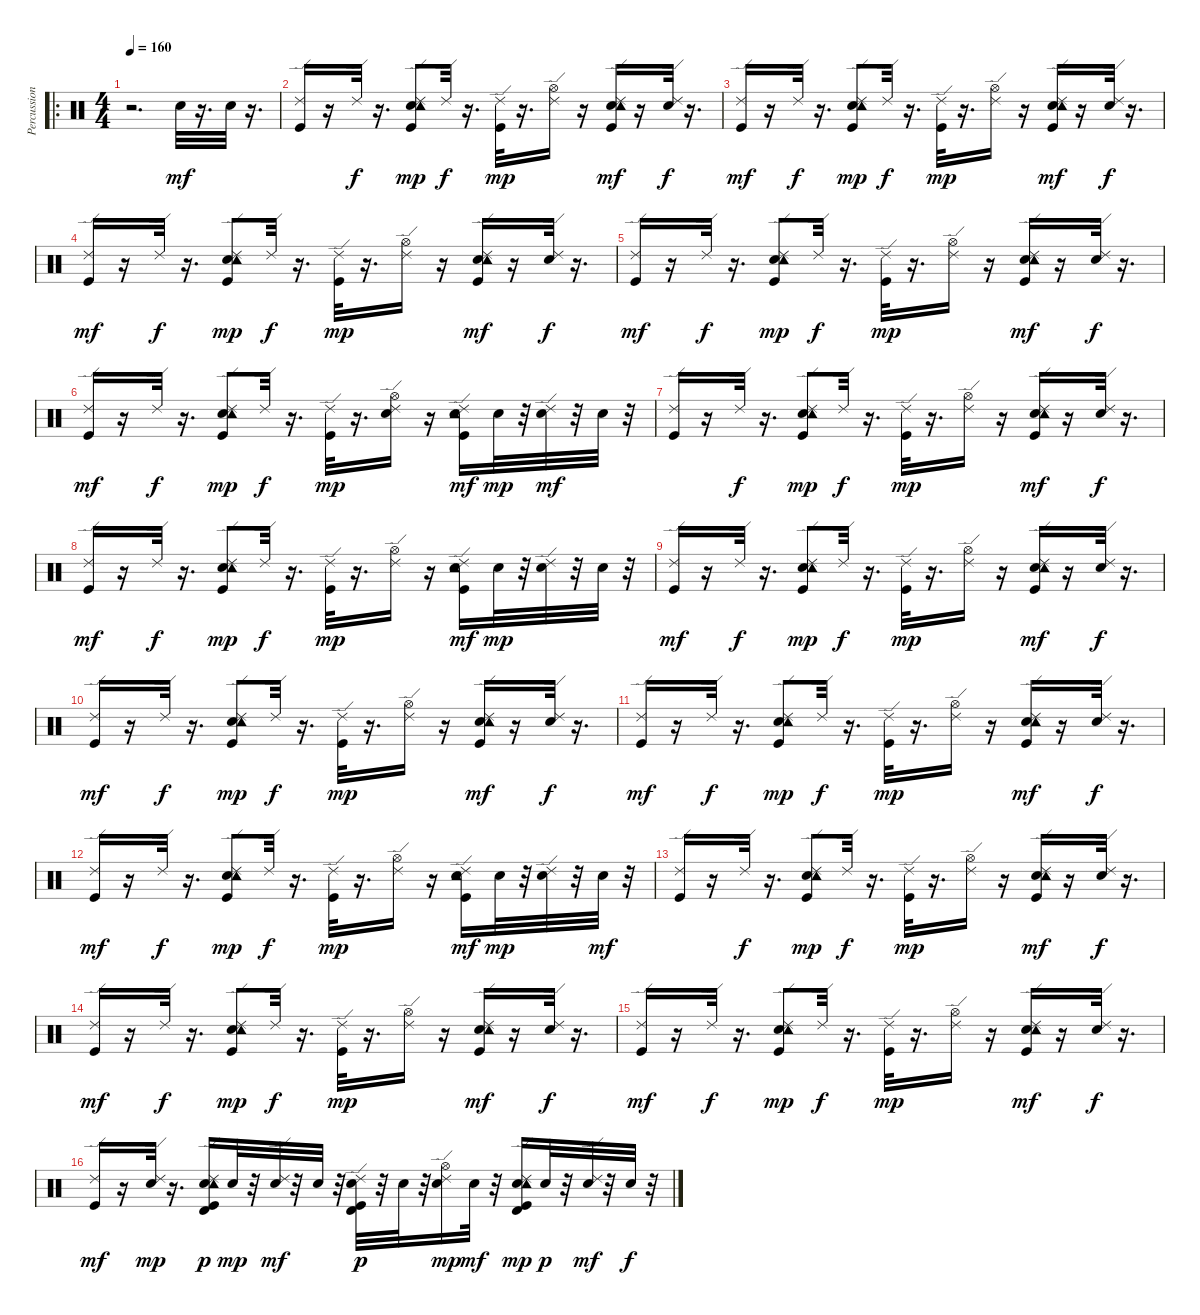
\track ("Percussion" "Percussion") {instrument percussion}
\staff {score}
\articulation defaults
\ro
\ts (4 4)
\tempo 160
\clef neutral
\ks c
r.2{d dy mf} "Snare (hit) 2".32 r.16{d} "Snare (hit) 2".32 r.16{d} |
("Kick (hit)" "Ride (edge) 2").16 r.16 "Ride (edge) 2".32{dy f} r.16{d} ("Kick (hit)" "Electric Snare (hit)" "Tambourine (hit)" "Ride (edge) 2").8{dy mp} "Ride (edge) 2".32{dy f} r.16{d} ("Kick (hit)" "Ride (edge) 2").32{dy mp} r.16{d} ("Hi-Hat (open)" "Ride (edge) 2").16 r.16 ("Kick (hit)" "Electric Snare (hit)" "Tambourine (hit)" "Ride (edge) 2").16{dy mf} r.16 ("Electric Snare (hit)" "Ride (edge) 2").32{dy f} r.16{d} |
("Kick (hit)" "Ride (edge) 2").16{dy mf} r.16 "Ride (edge) 2".32{dy f} r.16{d} ("Kick (hit)" "Electric Snare (hit)" "Tambourine (hit)" "Ride (edge) 2").8{dy mp} "Ride (edge) 2".32{dy f} r.16{d} ("Kick (hit)" "Ride (edge) 2").32{dy mp} r.16{d} ("Hi-Hat (open)" "Ride (edge) 2").16 r.16 ("Kick (hit)" "Electric Snare (hit)" "Tambourine (hit)" "Ride (edge) 2").16{dy mf} r.16 ("Electric Snare (hit)" "Ride (edge) 2").32{dy f} r.16{d} |
("Kick (hit)" "Ride (edge) 2").16{dy mf} r.16 "Ride (edge) 2".32{dy f} r.16{d} ("Kick (hit)" "Electric Snare (hit)" "Tambourine (hit)" "Ride (edge) 2").8{dy mp} "Ride (edge) 2".32{dy f} r.16{d} ("Kick (hit)" "Ride (edge) 2").32{dy mp} r.16{d} ("Hi-Hat (open)" "Ride (edge) 2").16 r.16 ("Kick (hit)" "Electric Snare (hit)" "Tambourine (hit)" "Ride (edge) 2").16{dy mf} r.16 ("Electric Snare (hit)" "Ride (edge) 2").32{dy f} r.16{d} |
("Kick (hit)" "Ride (edge) 2").16{dy mf} r.16 "Ride (edge) 2".32{dy f} r.16{d} ("Kick (hit)" "Electric Snare (hit)" "Tambourine (hit)" "Ride (edge) 2").8{dy mp} "Ride (edge) 2".32{dy f} r.16{d} ("Kick (hit)" "Ride (edge) 2").32{dy mp} r.16{d} ("Hi-Hat (open)" "Ride (edge) 2").16 r.16 ("Kick (hit)" "Electric Snare (hit)" "Tambourine (hit)" "Ride (edge) 2").16{dy mf} r.16 ("Electric Snare (hit)" "Ride (edge) 2").32{dy f} r.16{d} |
("Kick (hit)" "Ride (edge) 2").16{dy mf} r.16 "Ride (edge) 2".32{dy f} r.16{d} ("Kick (hit)" "Electric Snare (hit)" "Tambourine (hit)" "Ride (edge) 2").8{dy mp} "Ride (edge) 2".32{dy f} r.16{d} ("Kick (hit)" "Ride (edge) 2").32{dy mp} r.16{d} ("Snare (hit) 2" "Hi-Hat (open)" "Ride (edge) 2").16 r.16 ("Kick (hit)" "Snare (hit) 2" "Tambourine (hit)" "Ride (edge) 2").16{dy mf} "Snare (hit) 2".32{dy mp} r.32 ("Snare (hit) 2" "Ride (edge) 2").32{dy mf} r.32 "Snare (hit) 2".32 r.32 |
("Kick (hit)" "Ride (edge) 2").16 r.16 "Ride (edge) 2".32{dy f} r.16{d} ("Kick (hit)" "Electric Snare (hit)" "Tambourine (hit)" "Ride (edge) 2").8{dy mp} "Ride (edge) 2".32{dy f} r.16{d} ("Kick (hit)" "Ride (edge) 2").32{dy mp} r.16{d} ("Hi-Hat (open)" "Ride (edge) 2").16 r.16 ("Kick (hit)" "Electric Snare (hit)" "Tambourine (hit)" "Ride (edge) 2").16{dy mf} r.16 ("Electric Snare (hit)" "Ride (edge) 2").32{dy f} r.16{d} |
("Kick (hit)" "Ride (edge) 2").16{dy mf} r.16 "Ride (edge) 2".32{dy f} r.16{d} ("Kick (hit)" "Electric Snare (hit)" "Tambourine (hit)" "Ride (edge) 2").8{dy mp} "Ride (edge) 2".32{dy f} r.16{d} ("Kick (hit)" "Ride (edge) 2").32{dy mp} r.16{d} ("Hi-Hat (open)" "Ride (edge) 2").16 r.16 ("Kick (hit)" "Snare (hit) 2" "Tambourine (hit)" "Ride (edge) 2").16{dy mf} "Snare (hit) 2".32{dy mp} r.32 ("Snare (hit) 2" "Ride (edge) 2").32 r.32 "Snare (hit) 2".32 r.32 |
("Kick (hit)" "Ride (edge) 2").16{dy mf} r.16 "Ride (edge) 2".32{dy f} r.16{d} ("Kick (hit)" "Electric Snare (hit)" "Tambourine (hit)" "Ride (edge) 2").8{dy mp} "Ride (edge) 2".32{dy f} r.16{d} ("Kick (hit)" "Ride (edge) 2").32{dy mp} r.16{d} ("Hi-Hat (open)" "Ride (edge) 2").16 r.16 ("Kick (hit)" "Electric Snare (hit)" "Tambourine (hit)" "Ride (edge) 2").16{dy mf} r.16 ("Electric Snare (hit)" "Ride (edge) 2").32{dy f} r.16{d} |
("Kick (hit)" "Ride (edge) 2").16{dy mf} r.16 "Ride (edge) 2".32{dy f} r.16{d} ("Kick (hit)" "Electric Snare (hit)" "Tambourine (hit)" "Ride (edge) 2").8{dy mp} "Ride (edge) 2".32{dy f} r.16{d} ("Kick (hit)" "Ride (edge) 2").32{dy mp} r.16{d} ("Hi-Hat (open)" "Ride (edge) 2").16 r.16 ("Kick (hit)" "Electric Snare (hit)" "Tambourine (hit)" "Ride (edge) 2").16{dy mf} r.16 ("Electric Snare (hit)" "Ride (edge) 2").32{dy f} r.16{d} |
("Kick (hit)" "Ride (edge) 2").16{dy mf} r.16 "Ride (edge) 2".32{dy f} r.16{d} ("Kick (hit)" "Electric Snare (hit)" "Tambourine (hit)" "Ride (edge) 2").8{dy mp} "Ride (edge) 2".32{dy f} r.16{d} ("Kick (hit)" "Ride (edge) 2").32{dy mp} r.16{d} ("Hi-Hat (open)" "Ride (edge) 2").16 r.16 ("Kick (hit)" "Electric Snare (hit)" "Tambourine (hit)" "Ride (edge) 2").16{dy mf} r.16 ("Electric Snare (hit)" "Ride (edge) 2").32{dy f} r.16{d} |
("Kick (hit)" "Ride (edge) 2").16{dy mf} r.16 "Ride (edge) 2".32{dy f} r.16{d} ("Kick (hit)" "Electric Snare (hit)" "Tambourine (hit)" "Ride (edge) 2").8{dy mp} "Ride (edge) 2".32{dy f} r.16{d} ("Kick (hit)" "Ride (edge) 2").32{dy mp} r.16{d} ("Hi-Hat (open)" "Ride (edge) 2").16 r.16 ("Kick (hit)" "Snare (hit) 2" "Tambourine (hit)" "Ride (edge) 2").16{dy mf} "Snare (hit) 2".32{dy mp} r.32 ("Snare (hit) 2" "Ride (edge) 2").32 r.32 "Snare (hit) 2".32{dy mf} r.32 |
("Kick (hit)" "Ride (edge) 2").16 r.16 "Ride (edge) 2".32{dy f} r.16{d} ("Kick (hit)" "Electric Snare (hit)" "Tambourine (hit)" "Ride (edge) 2").8{dy mp} "Ride (edge) 2".32{dy f} r.16{d} ("Kick (hit)" "Ride (edge) 2").32{dy mp} r.16{d} ("Hi-Hat (open)" "Ride (edge) 2").16 r.16 ("Kick (hit)" "Electric Snare (hit)" "Tambourine (hit)" "Ride (edge) 2").16{dy mf} r.16 ("Electric Snare (hit)" "Ride (edge) 2").32{dy f} r.16{d} |
("Kick (hit)" "Ride (edge) 2").16{dy mf} r.16 "Ride (edge) 2".32{dy f} r.16{d} ("Kick (hit)" "Electric Snare (hit)" "Tambourine (hit)" "Ride (edge) 2").8{dy mp} "Ride (edge) 2".32{dy f} r.16{d} ("Kick (hit)" "Ride (edge) 2").32{dy mp} r.16{d} ("Hi-Hat (open)" "Ride (edge) 2").16 r.16 ("Kick (hit)" "Electric Snare (hit)" "Tambourine (hit)" "Ride (edge) 2").16{dy mf} r.16 ("Electric Snare (hit)" "Ride (edge) 2").32{dy f} r.16{d} |
("Kick (hit)" "Ride (edge) 2").16{dy mf} r.16 "Ride (edge) 2".32{dy f} r.16{d} ("Kick (hit)" "Electric Snare (hit)" "Tambourine (hit)" "Ride (edge) 2").8{dy mp} "Ride (edge) 2".32{dy f} r.16{d} ("Kick (hit)" "Ride (edge) 2").32{dy mp} r.16{d} ("Hi-Hat (open)" "Ride (edge) 2").16 r.16 ("Kick (hit)" "Electric Snare (hit)" "Tambourine (hit)" "Ride (edge) 2").16{dy mf} r.16 ("Electric Snare (hit)" "Ride (edge) 2").32{dy f} r.16{d} |
("Kick (hit)" "Ride (edge) 2").16{dy mf} r.16 ("Snare (hit) 2" "Ride (edge) 2").32{dy mp} r.16{d} ("Kick (hit)" "Snare (hit) 2" "Tambourine (hit)" "Ride (edge) 2" "Timbale high (hit)").16{dy p} "Snare (hit) 2".32{dy mp} r.32 ("Snare (hit) 2" "Ride (edge) 2").32{dy mf} r.32 "Snare (hit) 2".32 r.32 ("Kick (hit)" "Snare (hit) 2" "Ride (edge) 2" "Timbale high (hit)").32{dy p} r.32 "Snare (hit) 2".32 r.32 ("Snare (hit) 2" "Hi-Hat (open)" "Ride (edge) 2").16{dy mp} "Snare (hit) 2".32{dy mf} r.32 ("Kick (hit)" "Snare (hit) 2" "Tambourine (hit)" "Ride (edge) 2" "Timbale high (hit)").16{dy mp} "Snare (hit) 2".32{dy p} r.32 ("Snare (hit) 2" "Ride (edge) 2").32{dy mf} r.32 "Snare (hit) 2".32{dy f} r.32
